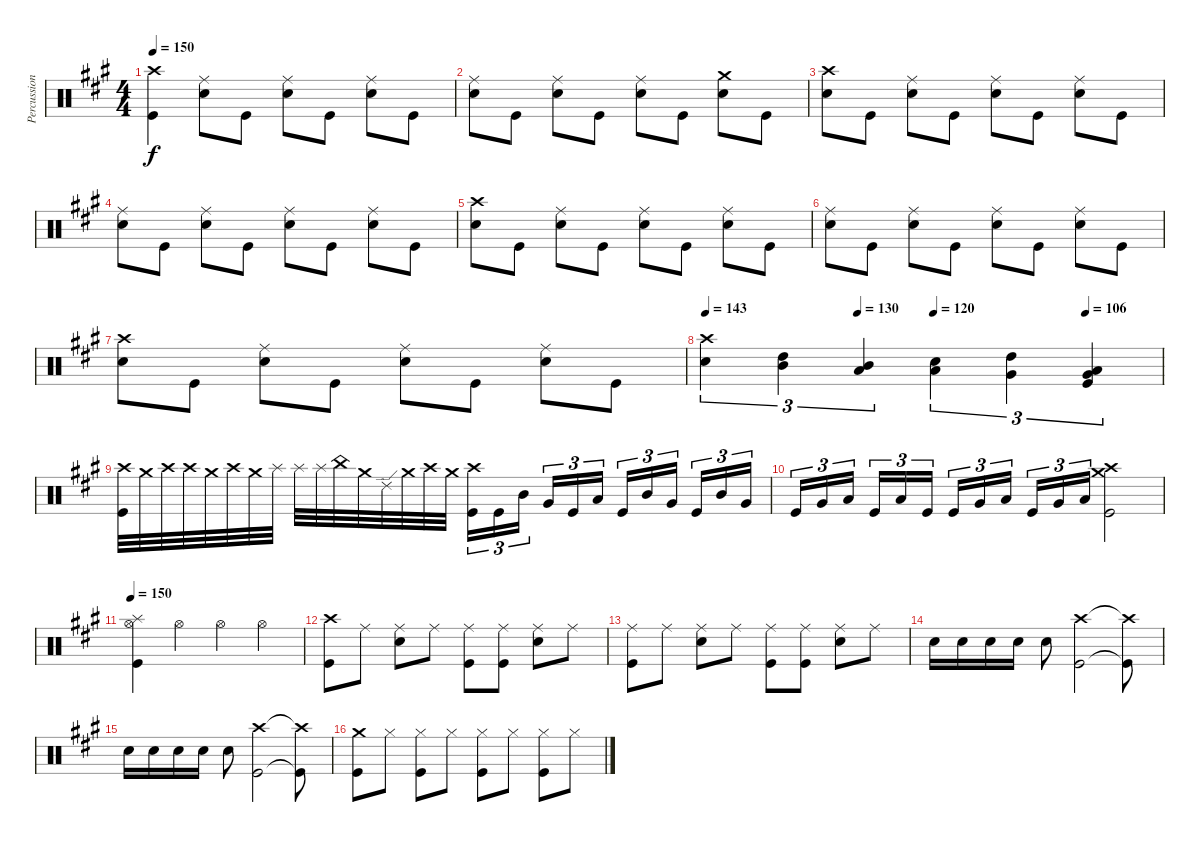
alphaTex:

\track ("Percussion" "Percussion") {instrument percussion}
\staff {score}
\articulation defaults
\ts (4 4)
\tempo 150
\clef neutral
\ks a
("Kick (hit)" "Crash high (hit)").4{dy f} ("Snare (hit) 2" "Ride (middle)").8 "Kick (hit)".8 ("Snare (hit) 2" "Ride (middle)").8 "Kick (hit)".8 ("Snare (hit) 2" "Ride (middle)").8 "Kick (hit)".8 |
("Snare (hit) 2" "Ride (middle)").8 "Kick (hit)".8 ("Snare (hit) 2" "Ride (middle)").8 "Kick (hit)".8 ("Snare (hit) 2" "Ride (middle)").8 "Kick (hit)".8 ("Snare (hit) 2" "Crash medium (hit)").8 "Kick (hit)".8 |
("Snare (hit) 2" "Crash high (hit)").8 "Kick (hit)".8 ("Snare (hit) 2" "Ride (middle)").8 "Kick (hit)".8 ("Snare (hit) 2" "Ride (middle)").8 "Kick (hit)".8 ("Snare (hit) 2" "Ride (middle)").8 "Kick (hit)".8 |
("Snare (hit) 2" "Ride (middle)").8 "Kick (hit)".8 ("Snare (hit) 2" "Ride (middle)").8 "Kick (hit)".8 ("Snare (hit) 2" "Ride (middle)").8 "Kick (hit)".8 ("Snare (hit) 2" "Ride (middle)").8 "Kick (hit)".8 |
("Snare (hit) 2" "Crash high (hit)").8 "Kick (hit)".8 ("Snare (hit) 2" "Ride (middle)").8 "Kick (hit)".8 ("Snare (hit) 2" "Ride (middle)").8 "Kick (hit)".8 ("Snare (hit) 2" "Ride (middle)").8 "Kick (hit)".8 |
("Snare (hit) 2" "Ride (middle)").8 "Kick (hit)".8 ("Snare (hit) 2" "Ride (middle)").8 "Kick (hit)".8 ("Snare (hit) 2" "Ride (middle)").8 "Kick (hit)".8 ("Snare (hit) 2" "Ride (middle)").8 "Kick (hit)".8 |
("Snare (hit) 2" "Crash high (hit)").8 "Kick (hit)".8 ("Snare (hit) 2" "Ride (middle)").8 "Kick (hit)".8 ("Snare (hit) 2" "Ride (middle)").8 "Kick (hit)".8 ("Snare (hit) 2" "Ride (middle)").8 "Kick (hit)".8 |
\tempo 143
\tempo (130 0.3333333333333333)
\tempo (120 0.5)
\tempo (106 0.8333333333333334)
("Snare (hit) 2" "Crash high (hit)").4{tu (3 2)} ("Mid Tom (hit)" "High Tom (hit)").4{tu (3 2)} ("Mid Tom (hit)" "Low Tom (hit)").4{tu (3 2)} ("Snare (hit) 2" "Low Tom (hit)").4{tu (3 2)} ("Very Low Tom (hit)" "High Tom (hit)").4{tu (3 2)} ("Very Low Tom (hit)" "Low Floor Tom (hit)" "Kick (hit)").4{tu (3 2)} |
("Kick (hit)" "Crash high (hit)").32 "Crash medium (hit)".32 "Crash high (hit)".32 "Crash high (hit)".32 "Crash medium (hit)".32 "Crash high (hit)".32 "Crash medium (hit)".32 "Splash (hit)".32 "Splash (hit)".32 "Splash (hit)".32 "China (hit)".32 "Crash medium (hit)".32 "Ride (edge) 2".32 "Crash medium (hit)".32 "Crash high (hit)".32 "Crash medium (hit)".32 ("Kick (hit)" "Crash high (hit)").16{tu (3 2)} "Kick (hit)".16{tu (3 2)} "Mid Tom (hit)".16{tu (3 2) beam splitsecondary} "Very Low Tom (hit)".16{tu (3 2)} "Kick (hit)".16{tu (3 2)} "Low Tom (hit)".16{tu (3 2)} "Kick (hit)".16{tu (3 2)} "Mid Tom (hit)".16{tu (3 2)} "Very Low Tom (hit)".16{tu (3 2) beam splitsecondary} "Kick (hit)".16{tu (3 2)} "Mid Tom (hit)".16{tu (3 2)} "Very Low Tom (hit)".16{tu (3 2)} |
"Kick (hit)".16{tu (3 2)} "Very Low Tom (hit)".16{tu (3 2)} "Low Floor Tom (hit)".16{tu (3 2) beam splitsecondary} "Kick (hit)".16{tu (3 2)} "Low Floor Tom (hit)".16{tu (3 2)} "Kick (hit)".16{tu (3 2)} "Kick (hit)".16{tu (3 2)} "Very Low Tom (hit)".16{tu (3 2)} "Low Floor Tom (hit)".16{tu (3 2) beam splitsecondary} "Kick (hit)".16{tu (3 2)} "Very Low Tom (hit)".16{tu (3 2)} "Low Floor Tom (hit)".16{tu (3 2)} ("Kick (hit)" "Crash high (hit)" "Crash medium (hit)").2 |
\tempo 150
("Kick (hit)" "Hi-Hat (open)" "Splash (hit)").4 "Hi-Hat (open)".4 "Hi-Hat (open)".4 "Hi-Hat (open)".4 |
("Kick (hit)" "Crash high (hit)").8 "Ride (middle)".8 ("Snare (hit) 2" "Ride (middle)").8 "Ride (middle)".8 ("Kick (hit)" "Ride (middle)").8 ("Kick (hit)" "Ride (middle)").8 ("Snare (hit) 2" "Ride (middle)").8 "Ride (middle)".8 |
("Kick (hit)" "Ride (middle)").8 "Ride (middle)".8 ("Snare (hit) 2" "Ride (middle)").8 "Ride (middle)".8 ("Kick (hit)" "Ride (middle)").8 ("Kick (hit)" "Ride (middle)").8 ("Snare (hit) 2" "Ride (middle)").8 "Ride (middle)".8 |
"Snare (hit) 2".16 "Snare (hit) 2".16 "Snare (hit) 2".16 "Snare (hit) 2".16 "Snare (hit) 2".8 ("Kick (hit)" "Crash high (hit)").2 ("Kick (hit)"{t} "Crash high (hit)"{t}).8 |
"Snare (hit) 2".16 "Snare (hit) 2".16 "Snare (hit) 2".16 "Snare (hit) 2".16 "Snare (hit) 2".8 ("Kick (hit)" "Crash high (hit)").2 ("Kick (hit)"{t} "Crash high (hit)"{t}).8 |
("Kick (hit)" "Crash medium (hit)").8 "Hi-Hat (closed)".8 ("Kick (hit)" "Hi-Hat (closed)").8 "Hi-Hat (closed)".8 ("Kick (hit)" "Hi-Hat (closed)").8 "Hi-Hat (closed)".8 ("Kick (hit)" "Hi-Hat (closed)").8 "Hi-Hat (closed)".8
